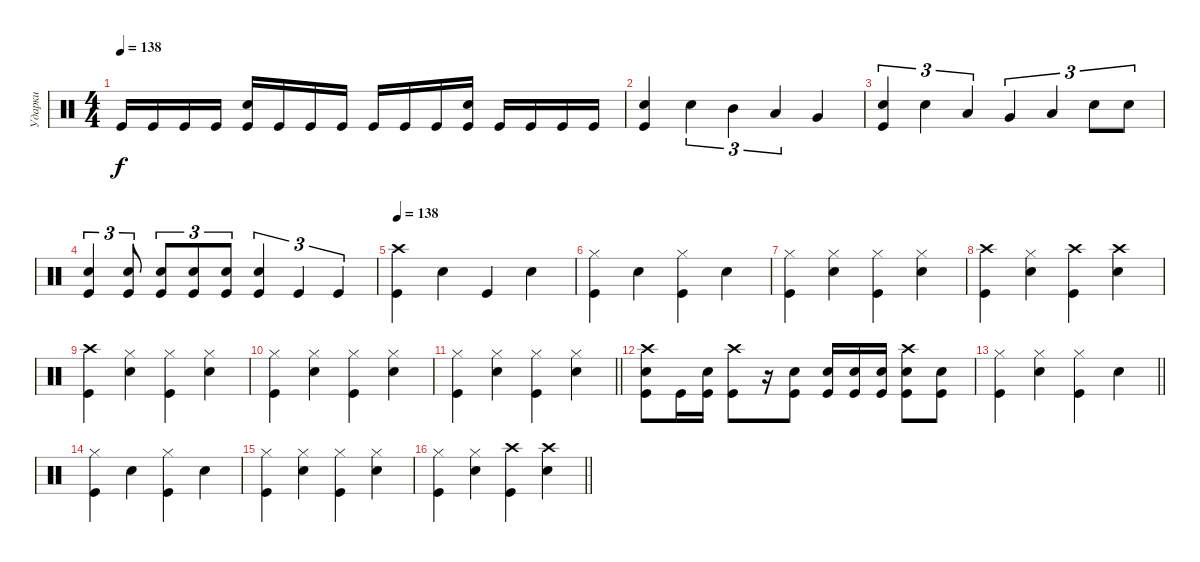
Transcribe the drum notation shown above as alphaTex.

\track ("Ударки" "Ударки") {instrument percussion}
\staff {score}
\articulation defaults
\ts (4 4)
\tempo 138
\clef neutral
\ks c "Kick (hit)".16{dy f} "Kick (hit)".16 "Kick (hit)".16 "Kick (hit)".16
("Kick (hit)" "Snare (hit) 2").16 "Kick (hit)".16 "Kick (hit)".16 "Kick (hit)".16 "Kick (hit)".16 "Kick (hit)".16 "Kick (hit)".16 ("Kick (hit)" "Snare (hit) 2").16 "Kick (hit)".16 "Kick (hit)".16 "Kick (hit)".16 "Kick (hit)".16 |
("Kick (hit)" "Snare (hit) 2").4 "Snare (hit) 2".4{tu (3 2)} "Mid Tom (hit)".4{tu (3 2)} "Low Tom (hit)".4{tu (3 2)} "Very Low Tom (hit)".4 |
("Kick (hit)" "Snare (hit) 2").4{tu (3 2)} "Snare (hit) 2".4{tu (3 2)} "Low Tom (hit)".4{tu (3 2)} "Very Low Tom (hit)".4{tu (3 2)} "Low Floor Tom (hit)".4{tu (3 2)} "Snare (hit) 2".8{tu (3 2)} "Snare (hit) 2".8{tu (3 2)} |
("Kick (hit)" "Snare (hit) 2").4{tu (3 2)} ("Kick (hit)" "Snare (hit) 2").8{tu (3 2)} ("Kick (hit)" "Snare (hit) 2").8{tu (3 2)} ("Snare (hit) 2" "Kick (hit)").8{tu (3 2)} ("Snare (hit) 2" "Kick (hit)").8{tu (3 2)} ("Snare (hit) 2" "Kick (hit)").4{tu (3 2)} "Kick (hit)".4{tu (3 2)} "Kick (hit)".4{tu (3 2)} |
\tempo 138
("Kick (hit)" "Crash high (hit)").4 "Snare (hit) 2".4 "Kick (hit)".4 "Snare (hit) 2".4 |
("Kick (hit)" "Hi-Hat (closed)").4 "Snare (hit) 2".4 ("Kick (hit)" "Hi-Hat (closed)").4 "Snare (hit) 2".4 |
("Kick (hit)" "Hi-Hat (closed)").4 ("Snare (hit) 2" "Hi-Hat (closed)").4 ("Kick (hit)" "Hi-Hat (closed)").4 ("Snare (hit) 2" "Hi-Hat (closed)").4 |
("Kick (hit)" "Crash high (hit)").4 ("Snare (hit) 2" "Hi-Hat (closed)").4 ("Kick (hit)" "Crash high (hit)").4 ("Snare (hit) 2" "Crash high (hit)").4 |
("Crash high (hit)" "Kick (hit)").4 ("Hi-Hat (closed)" "Snare (hit) 2").4 ("Kick (hit)" "Hi-Hat (closed)").4 ("Snare (hit) 2" "Hi-Hat (closed)").4 |
("Kick (hit)" "Hi-Hat (closed)").4 ("Snare (hit) 2" "Hi-Hat (closed)").4 ("Kick (hit)" "Hi-Hat (closed)").4 ("Snare (hit) 2" "Hi-Hat (closed)").4 |
\barLineRight lightlight
("Kick (hit)" "Hi-Hat (closed)").4 ("Snare (hit) 2" "Hi-Hat (closed)").4 ("Kick (hit)" "Hi-Hat (closed)").4 ("Snare (hit) 2" "Hi-Hat (closed)").4 |
("Crash high (hit)" "Kick (hit)" "Snare (hit) 2").8 "Kick (hit)".16 ("Kick (hit)" "Snare (hit) 2").16 ("Kick (hit)" "Crash high (hit)").8 r.16 ("Kick (hit)" "Snare (hit) 2").8 ("Snare (hit) 2" "Kick (hit)").16 ("Snare (hit) 2" "Kick (hit)").16 ("Snare (hit) 2" "Kick (hit)").16 ("Kick (hit)" "Snare (hit) 2" "Crash high (hit)").8 ("Snare (hit) 2" "Kick (hit)").8 |
\barLineRight lightlight
("Kick (hit)" "Hi-Hat (closed)").4 ("Snare (hit) 2" "Hi-Hat (closed)").4 ("Kick (hit)" "Hi-Hat (closed)").4 "Snare (hit) 2".4 |
("Hi-Hat (closed)" "Kick (hit)").4 "Snare (hit) 2".4 ("Hi-Hat (closed)" "Kick (hit)").4 "Snare (hit) 2".4 |
("Kick (hit)" "Hi-Hat (closed)").4 ("Snare (hit) 2" "Hi-Hat (closed)").4 ("Kick (hit)" "Hi-Hat (closed)").4 ("Snare (hit) 2" "Hi-Hat (closed)").4 |
\barLineRight lightlight
("Kick (hit)" "Hi-Hat (closed)").4 ("Snare (hit) 2" "Hi-Hat (closed)").4 ("Kick (hit)" "Crash high (hit)").4 ("Snare (hit) 2" "Crash high (hit)").4
